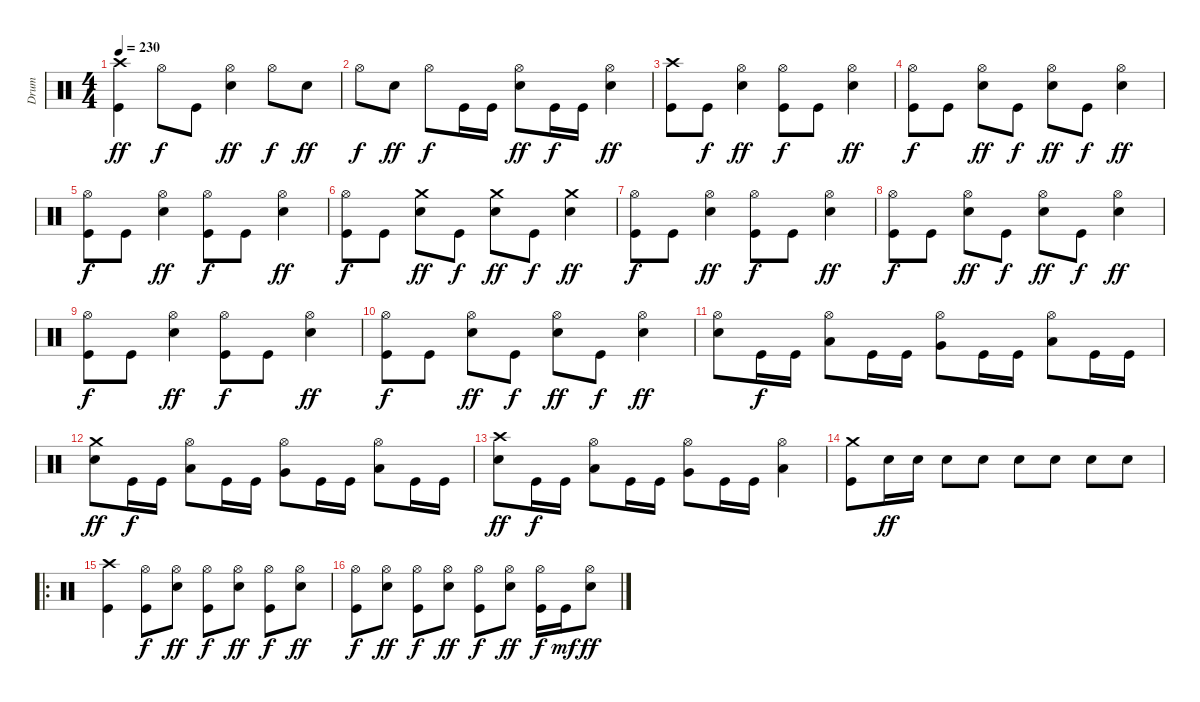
\track ("Drum" "Drum") {instrument percussion}
\staff {score}
\articulation defaults
\ts (4 4)
\tempo 230
\clef neutral
\ks c
("Kick (hit)" "Crash high (hit)").4{dy ff} "Hi-Hat (open)".8{dy f} "Kick (hit)".8 ("Electric Snare (hit)" "Hi-Hat (open)").4{dy ff} "Hi-Hat (open)".8{dy f} "Electric Snare (hit)".8{dy ff} |
"Hi-Hat (open)".8{dy f} "Electric Snare (hit)".8{dy ff} "Hi-Hat (open)".8{dy f} "Kick (hit)".16 "Kick (hit)".16 ("Electric Snare (hit)" "Hi-Hat (open)").8{dy ff} "Kick (hit)".16{dy f} "Kick (hit)".16 ("Electric Snare (hit)" "Hi-Hat (open)").4{dy ff} |
("Kick (hit)" "Crash high (hit)").8 "Kick (hit)".8{dy f} ("Electric Snare (hit)" "Hi-Hat (open)").4{dy ff} ("Kick (hit)" "Hi-Hat (open)").8{dy f} "Kick (hit)".8 ("Electric Snare (hit)" "Hi-Hat (open)").4{dy ff} |
("Kick (hit)" "Hi-Hat (open)").8{dy f} "Kick (hit)".8 ("Electric Snare (hit)" "Hi-Hat (open)").8{dy ff} "Kick (hit)".8{dy f} ("Electric Snare (hit)" "Hi-Hat (open)").8{dy ff} "Kick (hit)".8{dy f} ("Electric Snare (hit)" "Hi-Hat (open)").4{dy ff} |
("Kick (hit)" "Hi-Hat (open)").8{dy f} "Kick (hit)".8 ("Electric Snare (hit)" "Hi-Hat (open)").4{dy ff} ("Kick (hit)" "Hi-Hat (open)").8{dy f} "Kick (hit)".8 ("Electric Snare (hit)" "Hi-Hat (open)").4{dy ff} |
("Kick (hit)" "Hi-Hat (open)").8{dy f} "Kick (hit)".8 ("Electric Snare (hit)" "Crash medium (hit)").8{dy ff} "Kick (hit)".8{dy f} ("Electric Snare (hit)" "Crash medium (hit)").8{dy ff} "Kick (hit)".8{dy f} ("Electric Snare (hit)" "Crash medium (hit)").4{dy ff} |
("Kick (hit)" "Hi-Hat (open)").8{dy f} "Kick (hit)".8 ("Electric Snare (hit)" "Hi-Hat (open)").4{dy ff} ("Kick (hit)" "Hi-Hat (open)").8{dy f} "Kick (hit)".8 ("Electric Snare (hit)" "Hi-Hat (open)").4{dy ff} |
("Kick (hit)" "Hi-Hat (open)").8{dy f} "Kick (hit)".8 ("Electric Snare (hit)" "Hi-Hat (open)").8{dy ff} "Kick (hit)".8{dy f} ("Electric Snare (hit)" "Hi-Hat (open)").8{dy ff} "Kick (hit)".8{dy f} ("Electric Snare (hit)" "Hi-Hat (open)").4{dy ff} |
("Kick (hit)" "Hi-Hat (open)").8{dy f} "Kick (hit)".8 ("Electric Snare (hit)" "Hi-Hat (open)").4{dy ff} ("Kick (hit)" "Hi-Hat (open)").8{dy f} "Kick (hit)".8 ("Electric Snare (hit)" "Hi-Hat (open)").4{dy ff} |
("Kick (hit)" "Hi-Hat (open)").8{dy f} "Kick (hit)".8 ("Electric Snare (hit)" "Hi-Hat (open)").8{dy ff} "Kick (hit)".8{dy f} ("Electric Snare (hit)" "Hi-Hat (open)").8{dy ff} "Kick (hit)".8{dy f} ("Electric Snare (hit)" "Hi-Hat (open)").4{dy ff} |
("Electric Snare (hit)" "Hi-Hat (open)").8 "Kick (hit)".16{dy f} "Kick (hit)".16 ("Low Tom (hit)" "Hi-Hat (open)").8 "Kick (hit)".16 "Kick (hit)".16 ("Very Low Tom (hit)" "Hi-Hat (open)").8 "Kick (hit)".16 "Kick (hit)".16 ("Low Floor Tom (hit)" "Hi-Hat (open)").8 "Kick (hit)".16 "Kick (hit)".16 |
("Electric Snare (hit)" "Crash medium (hit)").8{dy ff} "Kick (hit)".16{dy f} "Kick (hit)".16 ("Low Tom (hit)" "Hi-Hat (open)").8 "Kick (hit)".16 "Kick (hit)".16 ("Very Low Tom (hit)" "Hi-Hat (open)").8 "Kick (hit)".16 "Kick (hit)".16 ("Low Floor Tom (hit)" "Hi-Hat (open)").8 "Kick (hit)".16 "Kick (hit)".16 |
("Electric Snare (hit)" "Crash high (hit)").8{dy ff} "Kick (hit)".16{dy f} "Kick (hit)".16 ("Low Tom (hit)" "Hi-Hat (open)").8 "Kick (hit)".16 "Kick (hit)".16 ("Very Low Tom (hit)" "Hi-Hat (open)").8 "Kick (hit)".16 "Kick (hit)".16 ("Low Floor Tom (hit)" "Hi-Hat (open)").4 |
("Kick (hit)" "Crash medium (hit)").8 "Electric Snare (hit)".16{dy ff} "Electric Snare (hit)".16 "Electric Snare (hit)".8 "Electric Snare (hit)".8 "Electric Snare (hit)".8 "Electric Snare (hit)".8 "Electric Snare (hit)".8 "Electric Snare (hit)".8 |
\ro
("Kick (hit)" "Crash high (hit)").4 ("Kick (hit)" "Hi-Hat (open)").8{dy f} ("Electric Snare (hit)" "Hi-Hat (open)").8{dy ff} ("Kick (hit)" "Hi-Hat (open)").8{dy f} ("Electric Snare (hit)" "Hi-Hat (open)").8{dy ff} ("Kick (hit)" "Hi-Hat (open)").8{dy f} ("Electric Snare (hit)" "Hi-Hat (open)").8{dy ff} |
("Kick (hit)" "Hi-Hat (open)").8{dy f} ("Electric Snare (hit)" "Hi-Hat (open)").8{dy ff} ("Kick (hit)" "Hi-Hat (open)").8{dy f} ("Electric Snare (hit)" "Hi-Hat (open)").8{dy ff} ("Kick (hit)" "Hi-Hat (open)").8{dy f} ("Electric Snare (hit)" "Hi-Hat (open)").8{dy ff} ("Kick (hit)" "Hi-Hat (open)").16{dy f} "Kick (hit)".16{dy mf} ("Electric Snare (hit)" "Hi-Hat (open)").8{dy ff}
